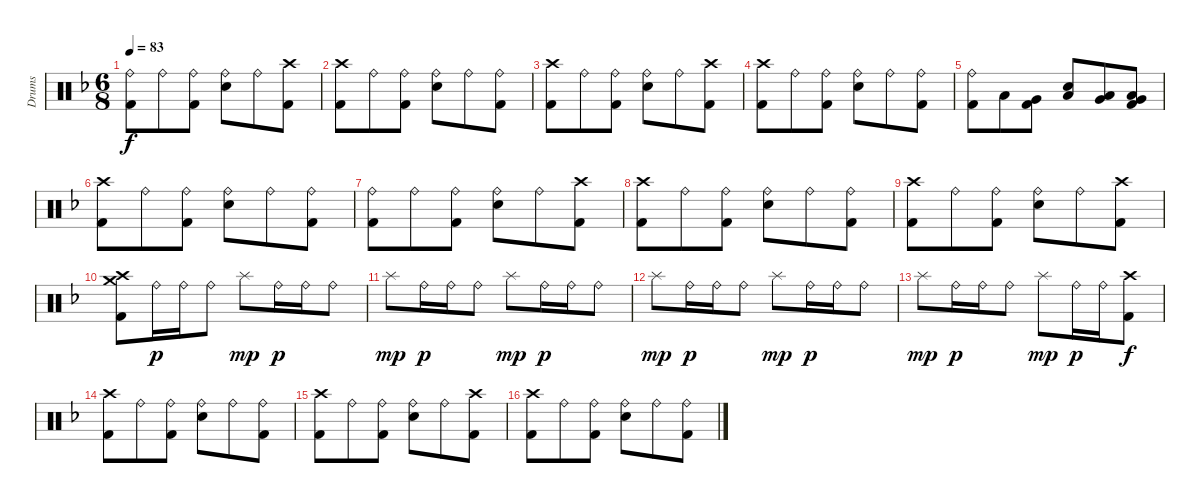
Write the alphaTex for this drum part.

\track ("Drums" "Drums") {instrument percussion}
\staff {score}
\articulation defaults
\ts (6 8)
\tempo 83
\clef neutral
\ks f
("Ride (bell)" "Kick (hit) 2").8{dy f} "Ride (bell)".8 ("Ride (bell)" "Kick (hit) 2").8 ("Ride (bell)" "Snare (hit) 2").8 "Ride (bell)".8 ("Crash high (hit)" "Kick (hit) 2").8 |
("Crash high (hit)" "Kick (hit) 2").8 "Ride (bell)".8 ("Ride (bell)" "Kick (hit) 2").8 ("Ride (bell)" "Snare (hit) 2").8 "Ride (bell)".8 ("Ride (bell)" "Kick (hit) 2").8 |
("Crash high (hit)" "Kick (hit) 2").8 "Ride (bell)".8 ("Ride (bell)" "Kick (hit) 2").8 ("Ride (bell)" "Snare (hit) 2").8 "Ride (bell)".8 ("Crash high (hit)" "Kick (hit) 2").8 |
("Crash high (hit)" "Kick (hit) 2").8 "Ride (bell)".8 ("Ride (bell)" "Kick (hit) 2").8 ("Ride (bell)" "Snare (hit) 2").8 "Ride (bell)".8 ("Ride (bell)" "Kick (hit) 2").8 |
("Ride (bell)" "Kick (hit) 2").8 "Low Tom (hit)".8 ("Very Low Tom (hit)" "Kick (hit) 2").8 ("Low Tom (hit)" "Snare (hit) 2").8 ("Low Tom (hit)" "Very Low Tom (hit)").8 ("Very Low Tom (hit)" "Low Floor Tom (hit)" "Kick (hit) 2").8 |
("Crash high (hit)" "Kick (hit) 2").8 "Ride (bell)".8 ("Ride (bell)" "Kick (hit) 2").8 ("Ride (bell)" "Snare (hit) 2").8 "Ride (bell)".8 ("Ride (bell)" "Kick (hit) 2").8 |
("Ride (bell)" "Kick (hit) 2").8 "Ride (bell)".8 ("Ride (bell)" "Kick (hit) 2").8 ("Ride (bell)" "Snare (hit) 2").8 "Ride (bell)".8 ("Crash high (hit)" "Kick (hit) 2").8 |
("Crash high (hit)" "Kick (hit) 2").8 "Ride (bell)".8 ("Ride (bell)" "Kick (hit) 2").8 ("Ride (bell)" "Snare (hit) 2").8 "Ride (bell)".8 ("Ride (bell)" "Kick (hit) 2").8 |
("Crash high (hit)" "Kick (hit) 2").8 "Ride (bell)".8 ("Ride (bell)" "Kick (hit) 2").8 ("Ride (bell)" "Snare (hit) 2").8 "Ride (bell)".8 ("Crash high (hit)" "Kick (hit) 2").8 |
("Crash medium (hit)" "Crash high (hit)" "Kick (hit) 2").8 "Ride (bell)".16{dy p} "Ride (bell)".16 "Ride (bell)".8 "Splash (hit)".8{dy mp} "Ride (bell)".16{dy p} "Ride (bell)".16 "Ride (bell)".8 |
"Splash (hit)".8{dy mp} "Ride (bell)".16{dy p} "Ride (bell)".16 "Ride (bell)".8 "Splash (hit)".8{dy mp} "Ride (bell)".16{dy p} "Ride (bell)".16 "Ride (bell)".8 |
"Splash (hit)".8{dy mp} "Ride (bell)".16{dy p} "Ride (bell)".16 "Ride (bell)".8 "Splash (hit)".8{dy mp} "Ride (bell)".16{dy p} "Ride (bell)".16 "Ride (bell)".8 |
"Splash (hit)".8{dy mp} "Ride (bell)".16{dy p} "Ride (bell)".16 "Ride (bell)".8 "Splash (hit)".8{dy mp} "Ride (bell)".16{dy p} "Ride (bell)".16 ("Crash high (hit)" "Kick (hit) 2").8{dy f} |
("Crash high (hit)" "Kick (hit) 2").8 "Ride (bell)".8 ("Ride (bell)" "Kick (hit) 2").8 ("Ride (bell)" "Snare (hit) 2").8 "Ride (bell)".8 ("Ride (bell)" "Kick (hit) 2").8 |
("Crash high (hit)" "Kick (hit) 2").8 "Ride (bell)".8 ("Ride (bell)" "Kick (hit) 2").8 ("Ride (bell)" "Snare (hit) 2").8 "Ride (bell)".8 ("Crash high (hit)" "Kick (hit) 2").8 |
("Crash high (hit)" "Kick (hit) 2").8 "Ride (bell)".8 ("Ride (bell)" "Kick (hit) 2").8 ("Ride (bell)" "Snare (hit) 2").8 "Ride (bell)".8 ("Ride (bell)" "Kick (hit) 2").8
